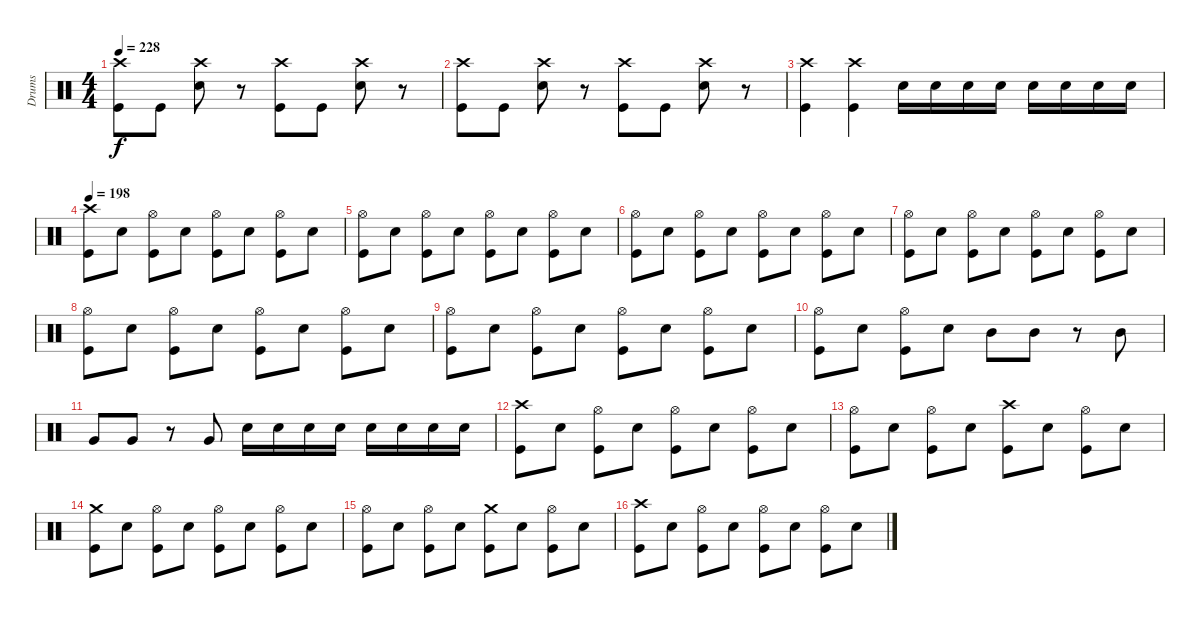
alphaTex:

\track ("Drums" "Drums") {instrument percussion}
\staff {score}
\articulation defaults
\ts (4 4)
\tempo 228
\clef neutral
\ks c
("Crash high (hit)" "Kick (hit)").8{dy f} "Kick (hit)".8 ("Crash high (hit)" "Electric Snare (hit)").8 r.8 ("Crash high (hit)" "Kick (hit)").8 "Kick (hit)".8 ("Crash high (hit)" "Electric Snare (hit)").8 r.8 |
("Crash high (hit)" "Kick (hit)").8 "Kick (hit)".8 ("Crash high (hit)" "Electric Snare (hit)").8 r.8 ("Crash high (hit)" "Kick (hit)").8 "Kick (hit)".8 ("Crash high (hit)" "Electric Snare (hit)").8 r.8 |
("Crash high (hit)" "Kick (hit)").4 ("Crash high (hit)" "Kick (hit)").4 "Electric Snare (hit)".16 "Electric Snare (hit)".16 "Electric Snare (hit)".16 "Electric Snare (hit)".16 "Electric Snare (hit)".16 "Electric Snare (hit)".16 "Electric Snare (hit)".16 "Electric Snare (hit)".16 |
\tempo 198
("Crash high (hit)" "Kick (hit)").8 "Electric Snare (hit)".8 ("Hi-Hat (open)" "Kick (hit)").8 "Electric Snare (hit)".8 ("Hi-Hat (open)" "Kick (hit)").8 "Electric Snare (hit)".8 ("Hi-Hat (open)" "Kick (hit)").8 "Electric Snare (hit)".8 |
("Hi-Hat (open)" "Kick (hit)").8 "Electric Snare (hit)".8 ("Hi-Hat (open)" "Kick (hit)").8 "Electric Snare (hit)".8 ("Hi-Hat (open)" "Kick (hit)").8 "Electric Snare (hit)".8 ("Hi-Hat (open)" "Kick (hit)").8 "Electric Snare (hit)".8 |
("Hi-Hat (open)" "Kick (hit)").8 "Electric Snare (hit)".8 ("Hi-Hat (open)" "Kick (hit)").8 "Electric Snare (hit)".8 ("Hi-Hat (open)" "Kick (hit)").8 "Electric Snare (hit)".8 ("Hi-Hat (open)" "Kick (hit)").8 "Electric Snare (hit)".8 |
("Hi-Hat (open)" "Kick (hit)").8 "Electric Snare (hit)".8 ("Hi-Hat (open)" "Kick (hit)").8 "Electric Snare (hit)".8 ("Hi-Hat (open)" "Kick (hit)").8 "Electric Snare (hit)".8 ("Hi-Hat (open)" "Kick (hit)").8 "Electric Snare (hit)".8 |
("Hi-Hat (open)" "Kick (hit)").8 "Electric Snare (hit)".8 ("Hi-Hat (open)" "Kick (hit)").8 "Electric Snare (hit)".8 ("Hi-Hat (open)" "Kick (hit)").8 "Electric Snare (hit)".8 ("Hi-Hat (open)" "Kick (hit)").8 "Electric Snare (hit)".8 |
("Hi-Hat (open)" "Kick (hit)").8 "Electric Snare (hit)".8 ("Hi-Hat (open)" "Kick (hit)").8 "Electric Snare (hit)".8 ("Hi-Hat (open)" "Kick (hit)").8 "Electric Snare (hit)".8 ("Hi-Hat (open)" "Kick (hit)").8 "Electric Snare (hit)".8 |
("Hi-Hat (open)" "Kick (hit)").8 "Electric Snare (hit)".8 ("Hi-Hat (open)" "Kick (hit)").8 "Electric Snare (hit)".8 "Mid Tom (hit)".8 "Mid Tom (hit)".8 r.8 "Mid Tom (hit)".8 |
"Very Low Tom (hit)".8 "Very Low Tom (hit)".8 r.8 "Very Low Tom (hit)".8 "Electric Snare (hit)".16 "Electric Snare (hit)".16 "Electric Snare (hit)".16 "Electric Snare (hit)".16 "Electric Snare (hit)".16 "Electric Snare (hit)".16 "Electric Snare (hit)".16 "Electric Snare (hit)".16 |
("Crash high (hit)" "Kick (hit)").8 "Electric Snare (hit)".8 ("Hi-Hat (open)" "Kick (hit)").8 "Electric Snare (hit)".8 ("Hi-Hat (open)" "Kick (hit)").8 "Electric Snare (hit)".8 ("Hi-Hat (open)" "Kick (hit)").8 "Electric Snare (hit)".8 |
("Hi-Hat (open)" "Kick (hit)").8 "Electric Snare (hit)".8 ("Hi-Hat (open)" "Kick (hit)").8 "Electric Snare (hit)".8 ("Crash high (hit)" "Kick (hit)").8 "Electric Snare (hit)".8 ("Hi-Hat (open)" "Kick (hit)").8 "Electric Snare (hit)".8 |
("Crash medium (hit)" "Kick (hit)").8 "Electric Snare (hit)".8 ("Hi-Hat (open)" "Kick (hit)").8 "Electric Snare (hit)".8 ("Hi-Hat (open)" "Kick (hit)").8 "Electric Snare (hit)".8 ("Hi-Hat (open)" "Kick (hit)").8 "Electric Snare (hit)".8 |
("Hi-Hat (open)" "Kick (hit)").8 "Electric Snare (hit)".8 ("Hi-Hat (open)" "Kick (hit)").8 "Electric Snare (hit)".8 ("Crash medium (hit)" "Kick (hit)").8 "Electric Snare (hit)".8 ("Hi-Hat (open)" "Kick (hit)").8 "Electric Snare (hit)".8 |
("Crash high (hit)" "Kick (hit)").8 "Electric Snare (hit)".8 ("Hi-Hat (open)" "Kick (hit)").8 "Electric Snare (hit)".8 ("Hi-Hat (open)" "Kick (hit)").8 "Electric Snare (hit)".8 ("Hi-Hat (open)" "Kick (hit)").8 "Electric Snare (hit)".8
